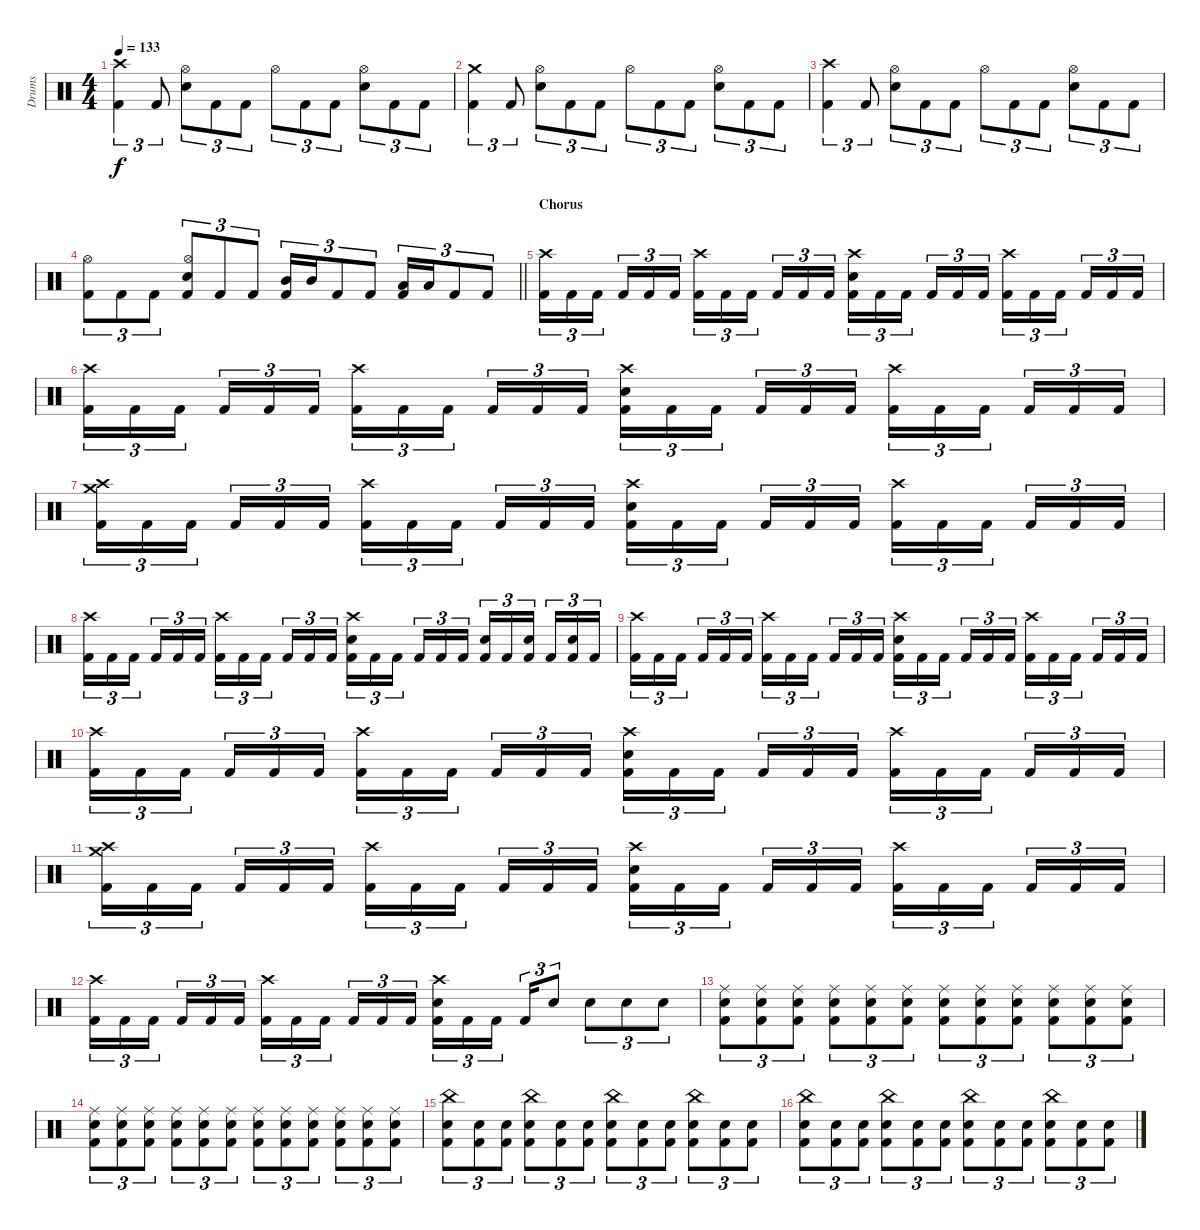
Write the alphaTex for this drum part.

\track ("Drums" "Drums") {instrument percussion}
\staff {score}
\articulation defaults
\ts (4 4)
\tempo 133
\clef neutral
\ks c
("Crash high (hit)" "Kick (hit) 2").4{tu (3 2) dy f} "Kick (hit) 2".8{tu (3 2)} ("Hi-Hat (open)" "Snare (hit) 2").8{tu (3 2)} "Kick (hit) 2".8{tu (3 2)} "Kick (hit) 2".8{tu (3 2)} "Hi-Hat (open)".8{tu (3 2)} "Kick (hit) 2".8{tu (3 2)} "Kick (hit) 2".8{tu (3 2)} ("Hi-Hat (open)" "Snare (hit) 2").8{tu (3 2)} "Kick (hit) 2".8{tu (3 2)} "Kick (hit) 2".8{tu (3 2)} |
("Crash medium (hit)" "Kick (hit) 2").4{tu (3 2)} "Kick (hit) 2".8{tu (3 2)} ("Hi-Hat (open)" "Snare (hit) 2").8{tu (3 2)} "Kick (hit) 2".8{tu (3 2)} "Kick (hit) 2".8{tu (3 2)} "Hi-Hat (open)".8{tu (3 2)} "Kick (hit) 2".8{tu (3 2)} "Kick (hit) 2".8{tu (3 2)} ("Hi-Hat (open)" "Snare (hit) 2").8{tu (3 2)} "Kick (hit) 2".8{tu (3 2)} "Kick (hit) 2".8{tu (3 2)} |
("Crash high (hit)" "Kick (hit) 2").4{tu (3 2)} "Kick (hit) 2".8{tu (3 2)} ("Hi-Hat (open)" "Snare (hit) 2").8{tu (3 2)} "Kick (hit) 2".8{tu (3 2)} "Kick (hit) 2".8{tu (3 2)} "Hi-Hat (open)".8{tu (3 2)} "Kick (hit) 2".8{tu (3 2)} "Kick (hit) 2".8{tu (3 2)} ("Hi-Hat (open)" "Snare (hit) 2").8{tu (3 2)} "Kick (hit) 2".8{tu (3 2)} "Kick (hit) 2".8{tu (3 2)} |
\barLineRight lightlight
("Hi-Hat (open)" "Kick (hit) 2").8{tu (3 2)} "Kick (hit) 2".8{tu (3 2)} "Kick (hit) 2".8{tu (3 2)} ("Hi-Hat (open)" "Snare (hit) 2" "Kick (hit) 2").8{tu (3 2)} "Kick (hit) 2".8{tu (3 2)} "Kick (hit) 2".8{tu (3 2)} ("Mid Tom (hit)" "Kick (hit) 2").16{tu (3 2)} "Mid Tom (hit)".16{tu (3 2)} "Kick (hit) 2".8{tu (3 2)} "Kick (hit) 2".8{tu (3 2)} ("Low Tom (hit)" "Kick (hit) 2").16{tu (3 2)} "Low Tom (hit)".16{tu (3 2)} "Kick (hit) 2".8{tu (3 2)} "Kick (hit) 2".8{tu (3 2)} |
\section ("" "Chorus")
("Crash high (hit)" "Kick (hit) 2").16{tu (3 2)} "Kick (hit) 2".16{tu (3 2)} "Kick (hit) 2".16{tu (3 2) beam splitsecondary} "Kick (hit) 2".16{tu (3 2)} "Kick (hit) 2".16{tu (3 2)} "Kick (hit) 2".16{tu (3 2)} ("Crash high (hit)" "Kick (hit) 2").16{tu (3 2)} "Kick (hit) 2".16{tu (3 2)} "Kick (hit) 2".16{tu (3 2) beam splitsecondary} "Kick (hit) 2".16{tu (3 2)} "Kick (hit) 2".16{tu (3 2)} "Kick (hit) 2".16{tu (3 2)} ("Crash high (hit)" "Snare (hit) 2" "Kick (hit) 2").16{tu (3 2)} "Kick (hit) 2".16{tu (3 2)} "Kick (hit) 2".16{tu (3 2) beam splitsecondary} "Kick (hit) 2".16{tu (3 2)} "Kick (hit) 2".16{tu (3 2)} "Kick (hit) 2".16{tu (3 2)} ("Crash high (hit)" "Kick (hit) 2").16{tu (3 2)} "Kick (hit) 2".16{tu (3 2)} "Kick (hit) 2".16{tu (3 2) beam splitsecondary} "Kick (hit) 2".16{tu (3 2)} "Kick (hit) 2".16{tu (3 2)} "Kick (hit) 2".16{tu (3 2)} |
("Crash high (hit)" "Kick (hit) 2").16{tu (3 2)} "Kick (hit) 2".16{tu (3 2)} "Kick (hit) 2".16{tu (3 2) beam splitsecondary} "Kick (hit) 2".16{tu (3 2)} "Kick (hit) 2".16{tu (3 2)} "Kick (hit) 2".16{tu (3 2)} ("Crash high (hit)" "Kick (hit) 2").16{tu (3 2)} "Kick (hit) 2".16{tu (3 2)} "Kick (hit) 2".16{tu (3 2) beam splitsecondary} "Kick (hit) 2".16{tu (3 2)} "Kick (hit) 2".16{tu (3 2)} "Kick (hit) 2".16{tu (3 2)} ("Crash high (hit)" "Snare (hit) 2" "Kick (hit) 2").16{tu (3 2)} "Kick (hit) 2".16{tu (3 2)} "Kick (hit) 2".16{tu (3 2) beam splitsecondary} "Kick (hit) 2".16{tu (3 2)} "Kick (hit) 2".16{tu (3 2)} "Kick (hit) 2".16{tu (3 2)} ("Crash high (hit)" "Kick (hit) 2").16{tu (3 2)} "Kick (hit) 2".16{tu (3 2)} "Kick (hit) 2".16{tu (3 2) beam splitsecondary} "Kick (hit) 2".16{tu (3 2)} "Kick (hit) 2".16{tu (3 2)} "Kick (hit) 2".16{tu (3 2)} |
("Crash high (hit)" "Crash medium (hit)" "Kick (hit) 2").16{tu (3 2)} "Kick (hit) 2".16{tu (3 2)} "Kick (hit) 2".16{tu (3 2) beam splitsecondary} "Kick (hit) 2".16{tu (3 2)} "Kick (hit) 2".16{tu (3 2)} "Kick (hit) 2".16{tu (3 2)} ("Crash high (hit)" "Kick (hit) 2").16{tu (3 2)} "Kick (hit) 2".16{tu (3 2)} "Kick (hit) 2".16{tu (3 2) beam splitsecondary} "Kick (hit) 2".16{tu (3 2)} "Kick (hit) 2".16{tu (3 2)} "Kick (hit) 2".16{tu (3 2)} ("Crash high (hit)" "Snare (hit) 2" "Kick (hit) 2").16{tu (3 2)} "Kick (hit) 2".16{tu (3 2)} "Kick (hit) 2".16{tu (3 2) beam splitsecondary} "Kick (hit) 2".16{tu (3 2)} "Kick (hit) 2".16{tu (3 2)} "Kick (hit) 2".16{tu (3 2)} ("Crash high (hit)" "Kick (hit) 2").16{tu (3 2)} "Kick (hit) 2".16{tu (3 2)} "Kick (hit) 2".16{tu (3 2) beam splitsecondary} "Kick (hit) 2".16{tu (3 2)} "Kick (hit) 2".16{tu (3 2)} "Kick (hit) 2".16{tu (3 2)} |
("Crash high (hit)" "Kick (hit) 2").16{tu (3 2)} "Kick (hit) 2".16{tu (3 2)} "Kick (hit) 2".16{tu (3 2) beam splitsecondary} "Kick (hit) 2".16{tu (3 2)} "Kick (hit) 2".16{tu (3 2)} "Kick (hit) 2".16{tu (3 2)} ("Crash high (hit)" "Kick (hit) 2").16{tu (3 2)} "Kick (hit) 2".16{tu (3 2)} "Kick (hit) 2".16{tu (3 2) beam splitsecondary} "Kick (hit) 2".16{tu (3 2)} "Kick (hit) 2".16{tu (3 2)} "Kick (hit) 2".16{tu (3 2)} ("Crash high (hit)" "Snare (hit) 2" "Kick (hit) 2").16{tu (3 2)} "Kick (hit) 2".16{tu (3 2)} "Kick (hit) 2".16{tu (3 2) beam splitsecondary} "Kick (hit) 2".16{tu (3 2)} "Kick (hit) 2".16{tu (3 2)} "Kick (hit) 2".16{tu (3 2)} ("Snare (hit) 2" "Kick (hit) 2").16{tu (3 2)} "Kick (hit) 2".16{tu (3 2)} ("Snare (hit) 2" "Kick (hit) 2").16{tu (3 2) beam splitsecondary} "Kick (hit) 2".16{tu (3 2)} ("Snare (hit) 2" "Kick (hit) 2").16{tu (3 2)} "Kick (hit) 2".16{tu (3 2)} |
("Crash high (hit)" "Kick (hit) 2").16{tu (3 2)} "Kick (hit) 2".16{tu (3 2)} "Kick (hit) 2".16{tu (3 2) beam splitsecondary} "Kick (hit) 2".16{tu (3 2)} "Kick (hit) 2".16{tu (3 2)} "Kick (hit) 2".16{tu (3 2)} ("Crash high (hit)" "Kick (hit) 2").16{tu (3 2)} "Kick (hit) 2".16{tu (3 2)} "Kick (hit) 2".16{tu (3 2) beam splitsecondary} "Kick (hit) 2".16{tu (3 2)} "Kick (hit) 2".16{tu (3 2)} "Kick (hit) 2".16{tu (3 2)} ("Crash high (hit)" "Snare (hit) 2" "Kick (hit) 2").16{tu (3 2)} "Kick (hit) 2".16{tu (3 2)} "Kick (hit) 2".16{tu (3 2) beam splitsecondary} "Kick (hit) 2".16{tu (3 2)} "Kick (hit) 2".16{tu (3 2)} "Kick (hit) 2".16{tu (3 2)} ("Crash high (hit)" "Kick (hit) 2").16{tu (3 2)} "Kick (hit) 2".16{tu (3 2)} "Kick (hit) 2".16{tu (3 2) beam splitsecondary} "Kick (hit) 2".16{tu (3 2)} "Kick (hit) 2".16{tu (3 2)} "Kick (hit) 2".16{tu (3 2)} |
("Crash high (hit)" "Kick (hit) 2").16{tu (3 2)} "Kick (hit) 2".16{tu (3 2)} "Kick (hit) 2".16{tu (3 2) beam splitsecondary} "Kick (hit) 2".16{tu (3 2)} "Kick (hit) 2".16{tu (3 2)} "Kick (hit) 2".16{tu (3 2)} ("Crash high (hit)" "Kick (hit) 2").16{tu (3 2)} "Kick (hit) 2".16{tu (3 2)} "Kick (hit) 2".16{tu (3 2) beam splitsecondary} "Kick (hit) 2".16{tu (3 2)} "Kick (hit) 2".16{tu (3 2)} "Kick (hit) 2".16{tu (3 2)} ("Crash high (hit)" "Snare (hit) 2" "Kick (hit) 2").16{tu (3 2)} "Kick (hit) 2".16{tu (3 2)} "Kick (hit) 2".16{tu (3 2) beam splitsecondary} "Kick (hit) 2".16{tu (3 2)} "Kick (hit) 2".16{tu (3 2)} "Kick (hit) 2".16{tu (3 2)} ("Crash high (hit)" "Kick (hit) 2").16{tu (3 2)} "Kick (hit) 2".16{tu (3 2)} "Kick (hit) 2".16{tu (3 2) beam splitsecondary} "Kick (hit) 2".16{tu (3 2)} "Kick (hit) 2".16{tu (3 2)} "Kick (hit) 2".16{tu (3 2)} |
("Crash high (hit)" "Crash medium (hit)" "Kick (hit) 2").16{tu (3 2)} "Kick (hit) 2".16{tu (3 2)} "Kick (hit) 2".16{tu (3 2) beam splitsecondary} "Kick (hit) 2".16{tu (3 2)} "Kick (hit) 2".16{tu (3 2)} "Kick (hit) 2".16{tu (3 2)} ("Crash high (hit)" "Kick (hit) 2").16{tu (3 2)} "Kick (hit) 2".16{tu (3 2)} "Kick (hit) 2".16{tu (3 2) beam splitsecondary} "Kick (hit) 2".16{tu (3 2)} "Kick (hit) 2".16{tu (3 2)} "Kick (hit) 2".16{tu (3 2)} ("Crash high (hit)" "Snare (hit) 2" "Kick (hit) 2").16{tu (3 2)} "Kick (hit) 2".16{tu (3 2)} "Kick (hit) 2".16{tu (3 2) beam splitsecondary} "Kick (hit) 2".16{tu (3 2)} "Kick (hit) 2".16{tu (3 2)} "Kick (hit) 2".16{tu (3 2)} ("Crash high (hit)" "Kick (hit) 2").16{tu (3 2)} "Kick (hit) 2".16{tu (3 2)} "Kick (hit) 2".16{tu (3 2) beam splitsecondary} "Kick (hit) 2".16{tu (3 2)} "Kick (hit) 2".16{tu (3 2)} "Kick (hit) 2".16{tu (3 2)} |
("Crash high (hit)" "Kick (hit) 2").16{tu (3 2)} "Kick (hit) 2".16{tu (3 2)} "Kick (hit) 2".16{tu (3 2) beam splitsecondary} "Kick (hit) 2".16{tu (3 2)} "Kick (hit) 2".16{tu (3 2)} "Kick (hit) 2".16{tu (3 2)} ("Crash high (hit)" "Kick (hit) 2").16{tu (3 2)} "Kick (hit) 2".16{tu (3 2)} "Kick (hit) 2".16{tu (3 2) beam splitsecondary} "Kick (hit) 2".16{tu (3 2)} "Kick (hit) 2".16{tu (3 2)} "Kick (hit) 2".16{tu (3 2)} ("Crash high (hit)" "Snare (hit) 2" "Kick (hit) 2").16{tu (3 2)} "Kick (hit) 2".16{tu (3 2)} "Kick (hit) 2".16{tu (3 2) beam splitsecondary} "Kick (hit) 2".16{tu (3 2)} "Snare (hit) 2".8{tu (3 2)} "Snare (hit) 2".8{tu (3 2)} "Snare (hit) 2".8{tu (3 2)} "Snare (hit) 2".8{tu (3 2)} |
("Ride (middle)" "Snare (hit) 2" "Kick (hit) 2").8{tu (3 2)} ("Ride (middle)" "Snare (hit) 2" "Kick (hit) 2").8{tu (3 2)} ("Ride (middle)" "Snare (hit) 2" "Kick (hit) 2").8{tu (3 2)} ("Ride (middle)" "Snare (hit) 2" "Kick (hit) 2").8{tu (3 2)} ("Ride (middle)" "Snare (hit) 2" "Kick (hit) 2").8{tu (3 2)} ("Ride (middle)" "Snare (hit) 2" "Kick (hit) 2").8{tu (3 2)} ("Ride (middle)" "Snare (hit) 2" "Kick (hit) 2").8{tu (3 2)} ("Ride (middle)" "Snare (hit) 2" "Kick (hit) 2").8{tu (3 2)} ("Ride (middle)" "Snare (hit) 2" "Kick (hit) 2").8{tu (3 2)} ("Ride (middle)" "Snare (hit) 2" "Kick (hit) 2").8{tu (3 2)} ("Ride (middle)" "Snare (hit) 2" "Kick (hit) 2").8{tu (3 2)} ("Ride (middle)" "Snare (hit) 2" "Kick (hit) 2").8{tu (3 2)} |
("Ride (middle)" "Snare (hit) 2" "Kick (hit) 2").8{tu (3 2)} ("Ride (middle)" "Snare (hit) 2" "Kick (hit) 2").8{tu (3 2)} ("Ride (middle)" "Snare (hit) 2" "Kick (hit) 2").8{tu (3 2)} ("Ride (middle)" "Snare (hit) 2" "Kick (hit) 2").8{tu (3 2)} ("Ride (middle)" "Snare (hit) 2" "Kick (hit) 2").8{tu (3 2)} ("Ride (middle)" "Snare (hit) 2" "Kick (hit) 2").8{tu (3 2)} ("Ride (middle)" "Snare (hit) 2" "Kick (hit) 2").8{tu (3 2)} ("Ride (middle)" "Snare (hit) 2" "Kick (hit) 2").8{tu (3 2)} ("Ride (middle)" "Snare (hit) 2" "Kick (hit) 2").8{tu (3 2)} ("Ride (middle)" "Snare (hit) 2" "Kick (hit) 2").8{tu (3 2)} ("Ride (middle)" "Snare (hit) 2" "Kick (hit) 2").8{tu (3 2)} ("Ride (middle)" "Snare (hit) 2" "Kick (hit) 2").8{tu (3 2)} |
("China (hit)" "Snare (hit) 2" "Kick (hit) 2").8{tu (3 2)} ("Snare (hit) 2" "Kick (hit) 2").8{tu (3 2)} ("Snare (hit) 2" "Kick (hit) 2").8{tu (3 2)} ("China (hit)" "Snare (hit) 2" "Kick (hit) 2").8{tu (3 2)} ("Snare (hit) 2" "Kick (hit) 2").8{tu (3 2)} ("Snare (hit) 2" "Kick (hit) 2").8{tu (3 2)} ("China (hit)" "Snare (hit) 2" "Kick (hit) 2").8{tu (3 2)} ("Snare (hit) 2" "Kick (hit) 2").8{tu (3 2)} ("Snare (hit) 2" "Kick (hit) 2").8{tu (3 2)} ("China (hit)" "Snare (hit) 2" "Kick (hit) 2").8{tu (3 2)} ("Snare (hit) 2" "Kick (hit) 2").8{tu (3 2)} ("Snare (hit) 2" "Kick (hit) 2").8{tu (3 2)} |
("China (hit)" "Snare (hit) 2" "Kick (hit) 2").8{tu (3 2)} ("Snare (hit) 2" "Kick (hit) 2").8{tu (3 2)} ("Snare (hit) 2" "Kick (hit) 2").8{tu (3 2)} ("China (hit)" "Snare (hit) 2" "Kick (hit) 2").8{tu (3 2)} ("Snare (hit) 2" "Kick (hit) 2").8{tu (3 2)} ("Snare (hit) 2" "Kick (hit) 2").8{tu (3 2)} ("China (hit)" "Snare (hit) 2" "Kick (hit) 2").8{tu (3 2)} ("Snare (hit) 2" "Kick (hit) 2").8{tu (3 2)} ("Snare (hit) 2" "Kick (hit) 2").8{tu (3 2)} ("China (hit)" "Snare (hit) 2" "Kick (hit) 2").8{tu (3 2)} ("Snare (hit) 2" "Kick (hit) 2").8{tu (3 2)} ("Snare (hit) 2" "Kick (hit) 2").8{tu (3 2)}
